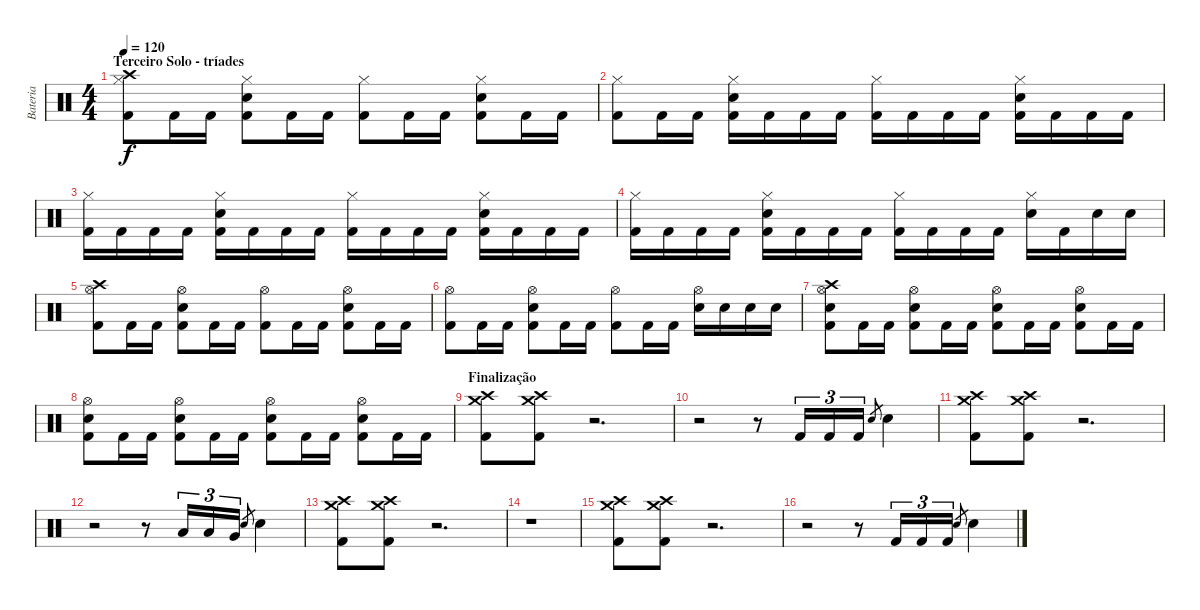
\track ("Bateria" "Bateria") {instrument percussion}
\staff {score}
\articulation defaults
\ts (4 4)
\section ("" "Terceiro Solo - tríades")
\tempo 120
\clef neutral
\ks c
("Hi-Hat (closed)" "Kick (hit) 2" "Crash high (hit)").8{dy f} "Kick (hit) 2".16 "Kick (hit) 2".16 ("Hi-Hat (closed)" "Snare (hit) 2" "Kick (hit) 2").8 "Kick (hit) 2".16 "Kick (hit) 2".16 ("Hi-Hat (closed)" "Kick (hit) 2").8 "Kick (hit) 2".16 "Kick (hit) 2".16 ("Hi-Hat (closed)" "Snare (hit) 2" "Kick (hit) 2").8 "Kick (hit) 2".16 "Kick (hit) 2".16 |
("Hi-Hat (closed)" "Kick (hit) 2").8 "Kick (hit) 2".16 "Kick (hit) 2".16 ("Hi-Hat (closed)" "Snare (hit) 2" "Kick (hit) 2").16 "Kick (hit) 2".16 "Kick (hit) 2".16 "Kick (hit) 2".16 ("Hi-Hat (closed)" "Kick (hit) 2").16 "Kick (hit) 2".16 "Kick (hit) 2".16 "Kick (hit) 2".16 ("Hi-Hat (closed)" "Snare (hit) 2" "Kick (hit) 2").16 "Kick (hit) 2".16 "Kick (hit) 2".16 "Kick (hit) 2".16 |
("Hi-Hat (closed)" "Kick (hit) 2").16 "Kick (hit) 2".16 "Kick (hit) 2".16 "Kick (hit) 2".16 ("Hi-Hat (closed)" "Snare (hit) 2" "Kick (hit) 2").16 "Kick (hit) 2".16 "Kick (hit) 2".16 "Kick (hit) 2".16 ("Hi-Hat (closed)" "Kick (hit) 2").16 "Kick (hit) 2".16 "Kick (hit) 2".16 "Kick (hit) 2".16 ("Hi-Hat (closed)" "Snare (hit) 2" "Kick (hit) 2").16 "Kick (hit) 2".16 "Kick (hit) 2".16 "Kick (hit) 2".16 |
("Hi-Hat (closed)" "Kick (hit) 2").16 "Kick (hit) 2".16 "Kick (hit) 2".16 "Kick (hit) 2".16 ("Hi-Hat (closed)" "Snare (hit) 2" "Kick (hit) 2").16 "Kick (hit) 2".16 "Kick (hit) 2".16 "Kick (hit) 2".16 ("Hi-Hat (closed)" "Kick (hit) 2").16 "Kick (hit) 2".16 "Kick (hit) 2".16 "Kick (hit) 2".16 ("Hi-Hat (closed)" "Snare (hit) 2").16 "Kick (hit) 2".16 "Snare (hit) 2".16 "Snare (hit) 2".16 |
("Hi-Hat (open)" "Kick (hit) 2" "Crash high (hit)").8 "Kick (hit) 2".16 "Kick (hit) 2".16 ("Hi-Hat (open)" "Snare (hit) 2" "Kick (hit) 2").8 "Kick (hit) 2".16 "Kick (hit) 2".16 ("Hi-Hat (open)" "Kick (hit) 2").8 "Kick (hit) 2".16 "Kick (hit) 2".16 ("Hi-Hat (open)" "Snare (hit) 2" "Kick (hit) 2").8 "Kick (hit) 2".16 "Kick (hit) 2".16 |
("Hi-Hat (open)" "Kick (hit) 2").8 "Kick (hit) 2".16 "Kick (hit) 2".16 ("Hi-Hat (open)" "Snare (hit) 2" "Kick (hit) 2").8 "Kick (hit) 2".16 "Kick (hit) 2".16 ("Hi-Hat (open)" "Kick (hit) 2").8 "Kick (hit) 2".16 "Kick (hit) 2".16 ("Hi-Hat (open)" "Snare (hit) 2").16 "Snare (hit) 2".16 "Snare (hit) 2".16 "Snare (hit) 2".16 |
("Hi-Hat (open)" "Snare (hit) 2" "Kick (hit) 2" "Crash high (hit)").8 "Kick (hit) 2".16 "Kick (hit) 2".16 ("Hi-Hat (open)" "Snare (hit) 2" "Kick (hit) 2").8 "Kick (hit) 2".16 "Kick (hit) 2".16 ("Hi-Hat (open)" "Snare (hit) 2" "Kick (hit) 2").8 "Kick (hit) 2".16 "Kick (hit) 2".16 ("Hi-Hat (open)" "Snare (hit) 2" "Kick (hit) 2").8 "Kick (hit) 2".16 "Kick (hit) 2".16 |
("Hi-Hat (open)" "Snare (hit) 2" "Kick (hit) 2").8 "Kick (hit) 2".16 "Kick (hit) 2".16 ("Hi-Hat (open)" "Snare (hit) 2" "Kick (hit) 2").8 "Kick (hit) 2".16 "Kick (hit) 2".16 ("Hi-Hat (open)" "Snare (hit) 2" "Kick (hit) 2").8 "Kick (hit) 2".16 "Kick (hit) 2".16 ("Hi-Hat (open)" "Snare (hit) 2" "Kick (hit) 2").8 "Kick (hit) 2".16 "Kick (hit) 2".16 |
\section ("" "Finalização")
("Kick (hit) 2" "Crash medium (hit)" "Crash high (hit)").8 ("Kick (hit) 2" "Crash medium (hit)" "Crash high (hit)").8 r.2{d} |
r.2 r.8 "Kick (hit) 2".16{tu (3 2)} "Kick (hit) 2".16{tu (3 2)} "Kick (hit) 2".16{tu (3 2)} "Snare (hit) 2".8{gr} "Snare (hit) 2".4 |
("Kick (hit) 2" "Crash medium (hit)" "Crash high (hit)").8 ("Kick (hit) 2" "Crash medium (hit)" "Crash high (hit)").8 r.2{d} |
r.2 r.8 "Low Tom (hit)".16{tu (3 2)} "Low Tom (hit)".16{tu (3 2)} "Very Low Tom (hit)".16{tu (3 2)} "Snare (hit) 2".8{gr} "Snare (hit) 2".4 |
("Kick (hit) 2" "Crash medium (hit)" "Crash high (hit)").8 ("Kick (hit) 2" "Crash medium (hit)" "Crash high (hit)").8 r.2{d} |
r.1 |
("Kick (hit) 2" "Crash medium (hit)" "Crash high (hit)").8 ("Kick (hit) 2" "Crash medium (hit)" "Crash high (hit)").8 r.2{d} |
r.2 r.8 "Kick (hit) 2".16{tu (3 2)} "Kick (hit) 2".16{tu (3 2)} "Kick (hit) 2".16{tu (3 2)} "Snare (hit) 2".8{gr} "Snare (hit) 2".4
